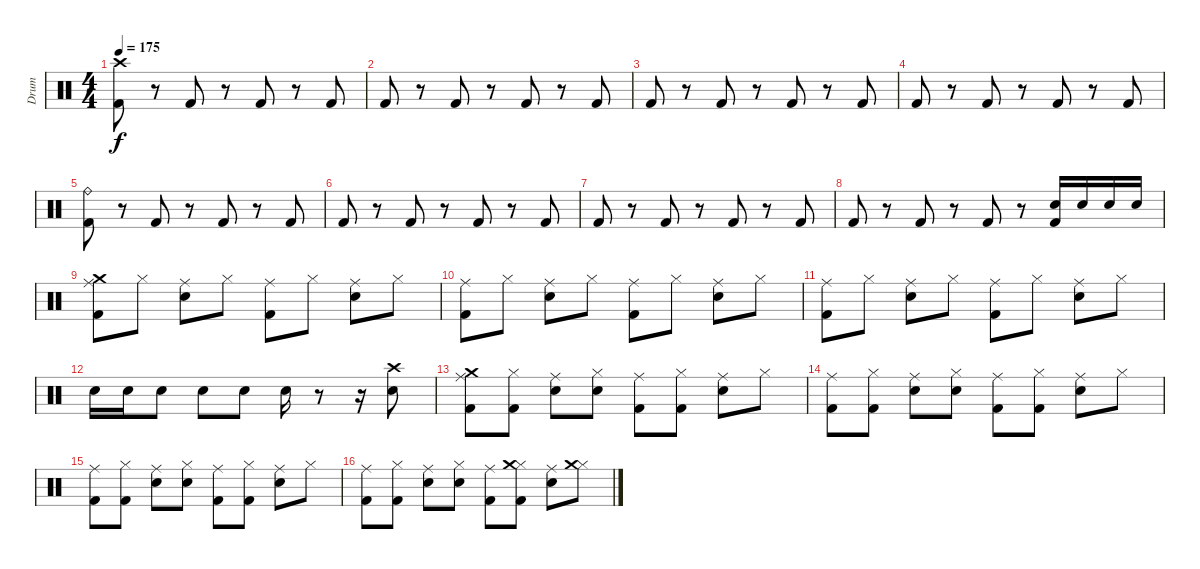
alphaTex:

\track ("Drum" "Drum") {instrument percussion}
\staff {score}
\articulation defaults
\ts (4 4)
\tempo 175
\clef neutral
\ks c
("Kick (hit) 2" "Crash high (hit)").8{dy f} r.8 "Kick (hit) 2".8 r.8 "Kick (hit) 2".8 r.8 "Kick (hit) 2".8 |
"Kick (hit) 2".8 r.8 "Kick (hit) 2".8 r.8 "Kick (hit) 2".8 r.8 "Kick (hit) 2".8 |
"Kick (hit) 2".8 r.8 "Kick (hit) 2".8 r.8 "Kick (hit) 2".8 r.8 "Kick (hit) 2".8 |
"Kick (hit) 2".8 r.8 "Kick (hit) 2".8 r.8 "Kick (hit) 2".8 r.8 "Kick (hit) 2".8 |
("Kick (hit) 2" "Ride (bell)").8 r.8 "Kick (hit) 2".8 r.8 "Kick (hit) 2".8 r.8 "Kick (hit) 2".8 |
"Kick (hit) 2".8 r.8 "Kick (hit) 2".8 r.8 "Kick (hit) 2".8 r.8 "Kick (hit) 2".8 |
"Kick (hit) 2".8 r.8 "Kick (hit) 2".8 r.8 "Kick (hit) 2".8 r.8 "Kick (hit) 2".8 |
"Kick (hit) 2".8 r.8 "Kick (hit) 2".8 r.8 "Kick (hit) 2".8 r.8 ("Electric Snare (hit)" "Kick (hit) 2").16 "Electric Snare (hit)".16 "Electric Snare (hit)".16 "Electric Snare (hit)".16 |
("Ride (middle)" "Kick (hit) 2" "Crash medium (hit)").8 "Hi-Hat (closed)".8 ("Ride (middle)" "Electric Snare (hit)").8 "Hi-Hat (closed)".8 ("Ride (middle)" "Kick (hit) 2").8 "Hi-Hat (closed)".8 ("Ride (middle)" "Electric Snare (hit)").8 "Hi-Hat (closed)".8 |
("Ride (middle)" "Kick (hit) 2").8 "Hi-Hat (closed)".8 ("Ride (middle)" "Electric Snare (hit)").8 "Hi-Hat (closed)".8 ("Ride (middle)" "Kick (hit) 2").8 "Hi-Hat (closed)".8 ("Ride (middle)" "Electric Snare (hit)").8 "Hi-Hat (closed)".8 |
("Ride (middle)" "Kick (hit) 2").8 "Hi-Hat (closed)".8 ("Ride (middle)" "Electric Snare (hit)").8 "Hi-Hat (closed)".8 ("Ride (middle)" "Kick (hit) 2").8 "Hi-Hat (closed)".8 ("Ride (middle)" "Electric Snare (hit)").8 "Hi-Hat (closed)".8 |
"Electric Snare (hit)".16 "Electric Snare (hit)".16 "Electric Snare (hit)".8 "Electric Snare (hit)".8 "Electric Snare (hit)".8 "Electric Snare (hit)".16 r.8 r.16 ("Electric Snare (hit)" "Crash high (hit)").8 |
("Ride (middle)" "Kick (hit) 2" "Crash medium (hit)").8 ("Hi-Hat (closed)" "Kick (hit) 2").8 ("Ride (middle)" "Electric Snare (hit)").8 ("Hi-Hat (closed)" "Electric Snare (hit)").8 ("Ride (middle)" "Kick (hit) 2").8 ("Hi-Hat (closed)" "Kick (hit) 2").8 ("Ride (middle)" "Electric Snare (hit)").8 "Hi-Hat (closed)".8 |
("Ride (middle)" "Kick (hit) 2").8 ("Hi-Hat (closed)" "Kick (hit) 2").8 ("Ride (middle)" "Electric Snare (hit)").8 ("Hi-Hat (closed)" "Electric Snare (hit)").8 ("Ride (middle)" "Kick (hit) 2").8 ("Hi-Hat (closed)" "Kick (hit) 2").8 ("Ride (middle)" "Electric Snare (hit)").8 "Hi-Hat (closed)".8 |
("Ride (middle)" "Kick (hit) 2").8 ("Hi-Hat (closed)" "Kick (hit) 2").8 ("Ride (middle)" "Electric Snare (hit)").8 ("Hi-Hat (closed)" "Electric Snare (hit)").8 ("Ride (middle)" "Kick (hit) 2").8 ("Hi-Hat (closed)" "Kick (hit) 2").8 ("Ride (middle)" "Electric Snare (hit)").8 "Hi-Hat (closed)".8 |
("Ride (middle)" "Kick (hit) 2").8 ("Hi-Hat (closed)" "Kick (hit) 2").8 ("Ride (middle)" "Electric Snare (hit)").8 ("Hi-Hat (closed)" "Electric Snare (hit)").8 ("Ride (middle)" "Kick (hit) 2").8 ("Hi-Hat (closed)" "Kick (hit) 2" "Crash medium (hit)").8 ("Ride (middle)" "Electric Snare (hit)").8 ("Hi-Hat (closed)" "Crash medium (hit)").8
